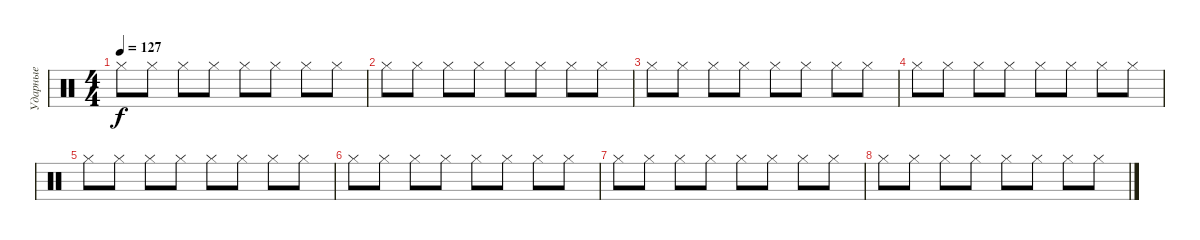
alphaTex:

\track ("Ударные" "Ударные") {instrument percussion}
\staff {score}
\articulation defaults
\ts (4 4)
\tempo 127
\clef neutral
\ks c "Hi-Hat (closed)".8{dy f} "Hi-Hat (closed)".8 "Hi-Hat (closed)".8 "Hi-Hat (closed)".8 "Hi-Hat (closed)".8 "Hi-Hat (closed)".8 "Hi-Hat (closed)".8 "Hi-Hat (closed)".8
|
"Hi-Hat (closed)".8 "Hi-Hat (closed)".8 "Hi-Hat (closed)".8 "Hi-Hat (closed)".8 "Hi-Hat (closed)".8 "Hi-Hat (closed)".8 "Hi-Hat (closed)".8 "Hi-Hat (closed)".8 |
"Hi-Hat (closed)".8 "Hi-Hat (closed)".8 "Hi-Hat (closed)".8 "Hi-Hat (closed)".8 "Hi-Hat (closed)".8 "Hi-Hat (closed)".8 "Hi-Hat (closed)".8 "Hi-Hat (closed)".8 |
"Hi-Hat (closed)".8 "Hi-Hat (closed)".8 "Hi-Hat (closed)".8 "Hi-Hat (closed)".8 "Hi-Hat (closed)".8 "Hi-Hat (closed)".8 "Hi-Hat (closed)".8 "Hi-Hat (closed)".8 |
"Hi-Hat (closed)".8 "Hi-Hat (closed)".8 "Hi-Hat (closed)".8 "Hi-Hat (closed)".8 "Hi-Hat (closed)".8 "Hi-Hat (closed)".8 "Hi-Hat (closed)".8 "Hi-Hat (closed)".8 |
"Hi-Hat (closed)".8 "Hi-Hat (closed)".8 "Hi-Hat (closed)".8 "Hi-Hat (closed)".8 "Hi-Hat (closed)".8 "Hi-Hat (closed)".8 "Hi-Hat (closed)".8 "Hi-Hat (closed)".8 |
"Hi-Hat (closed)".8 "Hi-Hat (closed)".8 "Hi-Hat (closed)".8 "Hi-Hat (closed)".8 "Hi-Hat (closed)".8 "Hi-Hat (closed)".8 "Hi-Hat (closed)".8 "Hi-Hat (closed)".8 |
"Hi-Hat (closed)".8 "Hi-Hat (closed)".8 "Hi-Hat (closed)".8 "Hi-Hat (closed)".8 "Hi-Hat (closed)".8 "Hi-Hat (closed)".8 "Hi-Hat (closed)".8 "Hi-Hat (closed)".8
